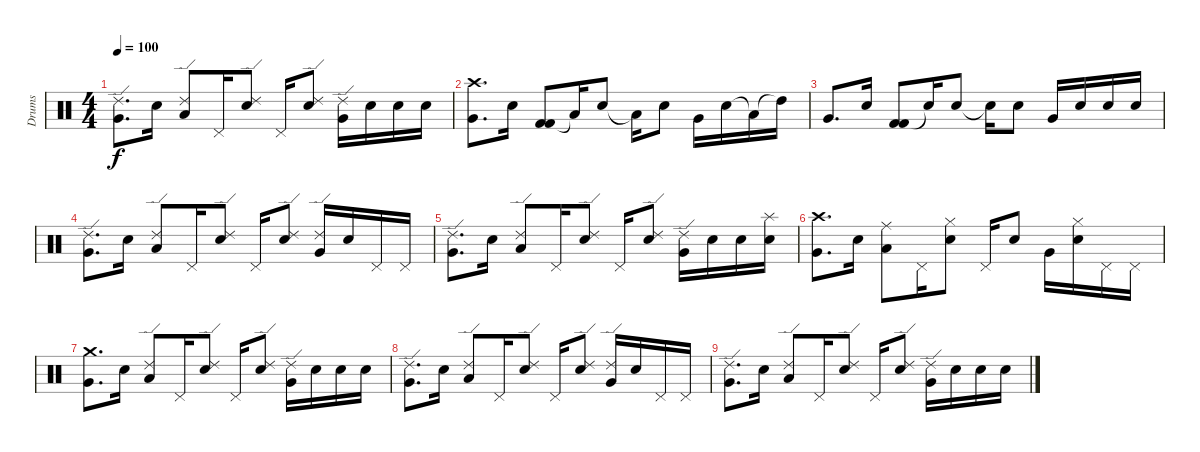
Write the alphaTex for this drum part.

\track ("Drums" "Drums") {instrument percussion}
\staff {score}
\articulation defaults
\ts (4 4)
\tempo 100
\clef neutral
\ks c
("Ride (edge) 2" "Very Low Tom (hit)").8{d dy f} "Electric Snare (hit)".16 ("Ride (edge) 2" "Low Tom (hit)").8 "Pedal Hi-Hat (hit)".16 ("Ride (edge) 2" "Electric Snare (hit)").8 "Pedal Hi-Hat (hit)".16 ("Ride (edge) 2" "Electric Snare (hit)").8 ("Ride (edge) 2" "Very Low Tom (hit)").16 "Electric Snare (hit)".16 "Electric Snare (hit)".16 "Electric Snare (hit)".16 |
("Crash high (hit)" "Very Low Tom (hit)").8{d} "Electric Snare (hit)".16 ("Kick (hit) 2" "Kick (hit) 2").8 "Low Tom (hit)"{t}.16 "Electric Snare (hit)".8 "Low Tom (hit)"{t}.16 "Electric Snare (hit)".8 "Very Low Tom (hit)".16 "Electric Snare (hit)".16 "Low Tom (hit)"{t}.16 "High Tom (hit)"{t}.16 |
"Very Low Tom (hit)".8{d} "Electric Snare (hit)".16 ("Kick (hit) 2" "Kick (hit) 2").8 "Snare (hit)"{t}.16 "Electric Snare (hit)".8 "Snare (hit)"{t}.16 "Electric Snare (hit)".8 "Very Low Tom (hit)".16 "Electric Snare (hit)".16 "Electric Snare (hit)".16 "Electric Snare (hit)".16 |
("Ride (edge) 2" "Very Low Tom (hit)").8{d} "Electric Snare (hit)".16 ("Ride (edge) 2" "Low Tom (hit)").8 "Pedal Hi-Hat (hit)".16 ("Ride (edge) 2" "Electric Snare (hit)").8 "Pedal Hi-Hat (hit)".16 ("Ride (edge) 2" "Electric Snare (hit)").8 ("Ride (edge) 2" "Very Low Tom (hit)").16 "Electric Snare (hit)".16 "Pedal Hi-Hat (hit)".16 "Pedal Hi-Hat (hit)".16 |
("Ride (edge) 2" "Very Low Tom (hit)").8{d} "Electric Snare (hit)".16 ("Ride (edge) 2" "Low Tom (hit)").8 "Pedal Hi-Hat (hit)".16 ("Ride (edge) 2" "Electric Snare (hit)").8 "Pedal Hi-Hat (hit)".16 ("Ride (edge) 2" "Electric Snare (hit)").8 ("Ride (edge) 2" "Very Low Tom (hit)").16 "Electric Snare (hit)".16 "Electric Snare (hit)".16 ("Splash (hit)" "Electric Snare (hit)").16 |
("Crash high (hit)" "Very Low Tom (hit)").8{d} "Electric Snare (hit)".16 ("Ride (middle)" "Low Tom (hit)").8 "Pedal Hi-Hat (hit)".16 ("Hi-Hat (closed)" "Electric Snare (hit)").8 "Pedal Hi-Hat (hit)".16 "Electric Snare (hit)".8 "Very Low Tom (hit)".16 ("Hi-Hat (closed)" "Electric Snare (hit)").16 "Pedal Hi-Hat (hit)".16 "Pedal Hi-Hat (hit)".16 |
("Crash medium (hit)" "Very Low Tom (hit)").8{d} "Electric Snare (hit)".16 ("Ride (edge) 2" "Low Tom (hit)").8 "Pedal Hi-Hat (hit)".16 ("Ride (edge) 2" "Electric Snare (hit)").8 "Pedal Hi-Hat (hit)".16 ("Ride (edge) 2" "Electric Snare (hit)").8 ("Ride (edge) 2" "Very Low Tom (hit)").16 "Electric Snare (hit)".16 "Electric Snare (hit)".16 "Electric Snare (hit)".16 |
("Ride (edge) 2" "Very Low Tom (hit)").8{d} "Electric Snare (hit)".16 ("Ride (edge) 2" "Low Tom (hit)").8 "Pedal Hi-Hat (hit)".16 ("Ride (edge) 2" "Electric Snare (hit)").8 "Pedal Hi-Hat (hit)".16 ("Ride (edge) 2" "Electric Snare (hit)").8 ("Ride (edge) 2" "Very Low Tom (hit)").16 "Electric Snare (hit)".16 "Pedal Hi-Hat (hit)".16 "Pedal Hi-Hat (hit)".16 |
("Ride (edge) 2" "Very Low Tom (hit)").8{d} "Electric Snare (hit)".16 ("Ride (edge) 2" "Low Tom (hit)").8 "Pedal Hi-Hat (hit)".16 ("Ride (edge) 2" "Electric Snare (hit)").8 "Pedal Hi-Hat (hit)".16 ("Ride (edge) 2" "Electric Snare (hit)").8 ("Ride (edge) 2" "Very Low Tom (hit)").16 "Electric Snare (hit)".16 "Electric Snare (hit)".16 "Electric Snare (hit)".16
